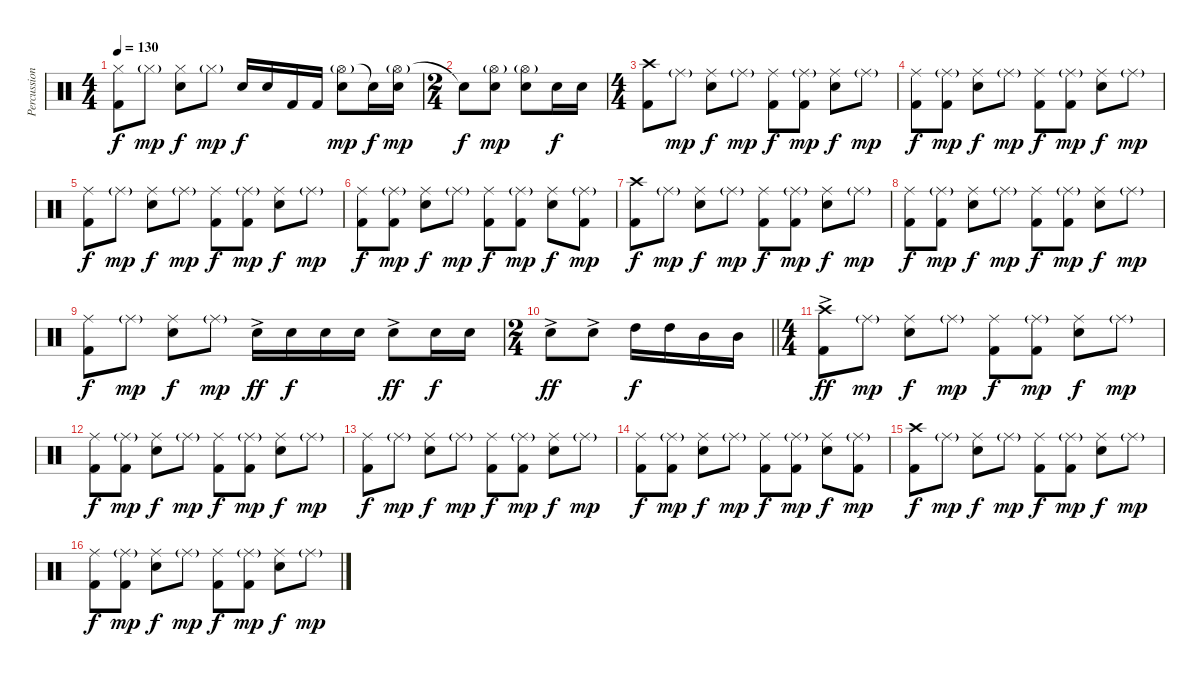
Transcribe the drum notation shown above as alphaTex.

\track ("Percussion" "Percussion") {instrument percussion}
\staff {score}
\articulation defaults
\ts (4 4)
\tempo 130
\clef neutral
\ks c
("Hi-Hat (closed)" "Kick (hit) 2").8{dy f} "Hi-Hat (closed)"{g}.8{dy mp} ("Hi-Hat (closed)" "Electric Snare (hit)").8{dy f} "Hi-Hat (closed)"{g}.8{dy mp} "Electric Snare (hit)".16{dy f} "Electric Snare (hit)".16 "Kick (hit) 2".16 "Kick (hit) 2".16 ("Hi-Hat (open)"{g} "Electric Snare (hit)").8{dy mp} "Snare (hit)"{t}.16{dy f} ("Hi-Hat (open)"{g} "Electric Snare (hit)").16{dy mp} |
\ts (2 4)
"Electric Snare (hit)"{t}.8{dy f} ("Hi-Hat (open)"{g} "Electric Snare (hit)").8{dy mp} ("Hi-Hat (open)"{g} "Electric Snare (hit)").8 "Electric Snare (hit)".16{dy f} "Electric Snare (hit)".16 |
\ts (4 4)
("Crash high (hit)" "Kick (hit) 2").8 "Ride (middle)"{g}.8{dy mp} ("Ride (middle)" "Snare (hit) 2").8{dy f} "Ride (middle)"{g}.8{dy mp} ("Ride (middle)" "Kick (hit) 2").8{dy f} ("Ride (middle)"{g} "Kick (hit) 2").8{dy mp} ("Ride (middle)" "Snare (hit) 2").8{dy f} "Ride (middle)"{g}.8{dy mp} |
("Ride (middle)" "Kick (hit) 2").8{dy f} ("Ride (middle)"{g} "Kick (hit) 2").8{dy mp} ("Ride (middle)" "Snare (hit) 2").8{dy f} "Ride (middle)"{g}.8{dy mp} ("Ride (middle)" "Kick (hit) 2").8{dy f} ("Ride (middle)"{g} "Kick (hit) 2").8{dy mp} ("Ride (middle)" "Snare (hit) 2").8{dy f} "Ride (middle)"{g}.8{dy mp} |
("Ride (middle)" "Kick (hit) 2").8{dy f} "Ride (middle)"{g}.8{dy mp} ("Ride (middle)" "Snare (hit) 2").8{dy f} "Ride (middle)"{g}.8{dy mp} ("Ride (middle)" "Kick (hit) 2").8{dy f} ("Ride (middle)"{g} "Kick (hit) 2").8{dy mp} ("Ride (middle)" "Snare (hit) 2").8{dy f} "Ride (middle)"{g}.8{dy mp} |
("Ride (middle)" "Kick (hit) 2").8{dy f} ("Ride (middle)"{g} "Kick (hit) 2").8{dy mp} ("Ride (middle)" "Snare (hit) 2").8{dy f} "Ride (middle)"{g}.8{dy mp} ("Ride (middle)" "Kick (hit) 2").8{dy f} ("Ride (middle)"{g} "Kick (hit) 2").8{dy mp} ("Ride (middle)" "Snare (hit) 2").8{dy f} ("Ride (middle)"{g} "Kick (hit) 2").8{dy mp} |
("Crash high (hit)" "Kick (hit) 2").8{dy f} "Ride (middle)"{g}.8{dy mp} ("Ride (middle)" "Snare (hit) 2").8{dy f} "Ride (middle)"{g}.8{dy mp} ("Ride (middle)" "Kick (hit) 2").8{dy f} ("Ride (middle)"{g} "Kick (hit) 2").8{dy mp} ("Ride (middle)" "Snare (hit) 2").8{dy f} "Ride (middle)"{g}.8{dy mp} |
("Ride (middle)" "Kick (hit) 2").8{dy f} ("Ride (middle)"{g} "Kick (hit) 2").8{dy mp} ("Ride (middle)" "Snare (hit) 2").8{dy f} "Ride (middle)"{g}.8{dy mp} ("Ride (middle)" "Kick (hit) 2").8{dy f} ("Ride (middle)"{g} "Kick (hit) 2").8{dy mp} ("Ride (middle)" "Snare (hit) 2").8{dy f} "Ride (middle)"{g}.8{dy mp} |
("Ride (middle)" "Kick (hit) 2").8{dy f} "Ride (middle)"{g}.8{dy mp} ("Ride (middle)" "Snare (hit) 2").8{dy f} "Ride (middle)"{g}.8{dy mp} "Electric Snare (hit)"{ac}.16{dy ff} "Electric Snare (hit)".16{dy f} "Electric Snare (hit)".16 "Electric Snare (hit)".16 "Electric Snare (hit)"{ac}.8{dy ff} "Electric Snare (hit)".16{dy f} "Electric Snare (hit)".16 |
\ts (2 4)
\barLineRight lightlight "Electric Snare (hit)"{ac}.8{dy ff} "Electric Snare (hit)"{ac}.8 "High Tom (hit)".16{dy f} "High Tom (hit)".16 "Mid Tom (hit)".16 "Mid Tom (hit)".16
|
\ts (4 4)
("Crash high (hit)"{ac} "Kick (hit) 2"{ac}).8{dy ff} "Ride (middle)"{g}.8{dy mp} ("Ride (middle)" "Snare (hit) 2").8{dy f} "Ride (middle)"{g}.8{dy mp} ("Ride (middle)" "Kick (hit) 2").8{dy f} ("Ride (middle)"{g} "Kick (hit) 2").8{dy mp} ("Ride (middle)" "Snare (hit) 2").8{dy f} "Ride (middle)"{g}.8{dy mp} |
("Ride (middle)" "Kick (hit) 2").8{dy f} ("Ride (middle)"{g} "Kick (hit) 2").8{dy mp} ("Ride (middle)" "Snare (hit) 2").8{dy f} "Ride (middle)"{g}.8{dy mp} ("Ride (middle)" "Kick (hit) 2").8{dy f} ("Ride (middle)"{g} "Kick (hit) 2").8{dy mp} ("Ride (middle)" "Snare (hit) 2").8{dy f} "Ride (middle)"{g}.8{dy mp} |
("Ride (middle)" "Kick (hit) 2").8{dy f} "Ride (middle)"{g}.8{dy mp} ("Ride (middle)" "Snare (hit) 2").8{dy f} "Ride (middle)"{g}.8{dy mp} ("Ride (middle)" "Kick (hit) 2").8{dy f} ("Ride (middle)"{g} "Kick (hit) 2").8{dy mp} ("Ride (middle)" "Snare (hit) 2").8{dy f} "Ride (middle)"{g}.8{dy mp} |
("Ride (middle)" "Kick (hit) 2").8{dy f} ("Ride (middle)"{g} "Kick (hit) 2").8{dy mp} ("Ride (middle)" "Snare (hit) 2").8{dy f} "Ride (middle)"{g}.8{dy mp} ("Ride (middle)" "Kick (hit) 2").8{dy f} ("Ride (middle)"{g} "Kick (hit) 2").8{dy mp} ("Ride (middle)" "Snare (hit) 2").8{dy f} ("Ride (middle)"{g} "Kick (hit) 2").8{dy mp} |
("Crash high (hit)" "Kick (hit) 2").8{dy f} "Ride (middle)"{g}.8{dy mp} ("Ride (middle)" "Snare (hit) 2").8{dy f} "Ride (middle)"{g}.8{dy mp} ("Ride (middle)" "Kick (hit) 2").8{dy f} ("Ride (middle)"{g} "Kick (hit) 2").8{dy mp} ("Ride (middle)" "Snare (hit) 2").8{dy f} "Ride (middle)"{g}.8{dy mp} |
("Ride (middle)" "Kick (hit) 2").8{dy f} ("Ride (middle)"{g} "Kick (hit) 2").8{dy mp} ("Ride (middle)" "Snare (hit) 2").8{dy f} "Ride (middle)"{g}.8{dy mp} ("Ride (middle)" "Kick (hit) 2").8{dy f} ("Ride (middle)"{g} "Kick (hit) 2").8{dy mp} ("Ride (middle)" "Snare (hit) 2").8{dy f} "Ride (middle)"{g}.8{dy mp}
